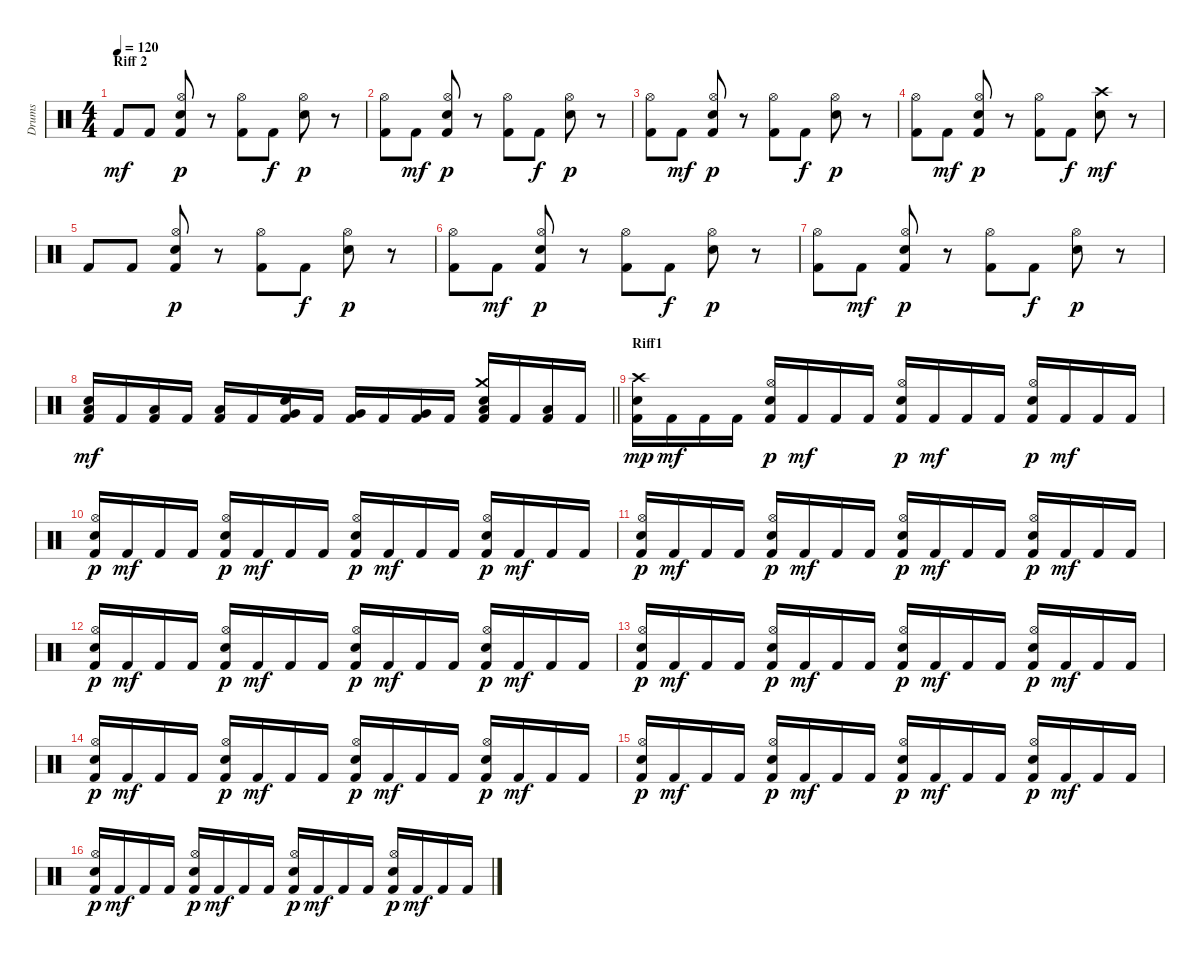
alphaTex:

\track ("Drums" "Drums") {instrument percussion}
\staff {score}
\articulation defaults
\ts (4 4)
\section ("" "Riff 2")
\tempo 120
\clef neutral
\ks c "Kick (hit) 2".8{dy mf} "Kick (hit) 2".8
("Kick (hit) 2" "Hi-Hat (open)" "Snare (hit) 2").8{dy p} r.8 ("Kick (hit) 2" "Hi-Hat (open)").8 "Kick (hit) 2".8{dy f} ("Hi-Hat (open)" "Snare (hit) 2").8{dy p} r.8 |
("Kick (hit) 2" "Hi-Hat (open)").8 "Kick (hit) 2".8{dy mf} ("Kick (hit) 2" "Hi-Hat (open)" "Snare (hit) 2").8{dy p} r.8 ("Kick (hit) 2" "Hi-Hat (open)").8 "Kick (hit) 2".8{dy f} ("Hi-Hat (open)" "Snare (hit) 2").8{dy p} r.8 |
("Kick (hit) 2" "Hi-Hat (open)").8 "Kick (hit) 2".8{dy mf} ("Kick (hit) 2" "Hi-Hat (open)" "Snare (hit) 2").8{dy p} r.8 ("Kick (hit) 2" "Hi-Hat (open)").8 "Kick (hit) 2".8{dy f} ("Hi-Hat (open)" "Snare (hit) 2").8{dy p} r.8 |
("Kick (hit) 2" "Hi-Hat (open)").8 "Kick (hit) 2".8{dy mf} ("Kick (hit) 2" "Hi-Hat (open)" "Snare (hit) 2").8{dy p} r.8 ("Kick (hit) 2" "Hi-Hat (open)").8 "Kick (hit) 2".8{dy f} ("Crash high (hit)" "Snare (hit) 2").8{dy mf} r.8 |
"Kick (hit) 2".8 "Kick (hit) 2".8 ("Kick (hit) 2" "Hi-Hat (open)" "Snare (hit) 2").8{dy p} r.8 ("Kick (hit) 2" "Hi-Hat (open)").8 "Kick (hit) 2".8{dy f} ("Hi-Hat (open)" "Snare (hit) 2").8{dy p} r.8 |
("Kick (hit) 2" "Hi-Hat (open)").8 "Kick (hit) 2".8{dy mf} ("Kick (hit) 2" "Hi-Hat (open)" "Snare (hit) 2").8{dy p} r.8 ("Kick (hit) 2" "Hi-Hat (open)").8 "Kick (hit) 2".8{dy f} ("Hi-Hat (open)" "Snare (hit) 2").8{dy p} r.8 |
("Kick (hit) 2" "Hi-Hat (open)").8 "Kick (hit) 2".8{dy mf} ("Kick (hit) 2" "Hi-Hat (open)" "Snare (hit) 2").8{dy p} r.8 ("Kick (hit) 2" "Hi-Hat (open)").8 "Kick (hit) 2".8{dy f} ("Hi-Hat (open)" "Snare (hit) 2").8{dy p} r.8 |
\barLineRight lightlight
("Kick (hit) 2" "Snare (hit) 2" "Low Tom (hit)").16{dy mf} "Kick (hit) 2".16 ("Kick (hit) 2" "Low Tom (hit)").16 "Kick (hit) 2".16 ("Kick (hit) 2" "Low Tom (hit)").16 "Kick (hit) 2".16 ("Kick (hit) 2" "Snare (hit) 2" "Very Low Tom (hit)").16 "Kick (hit) 2".16 ("Kick (hit) 2" "Very Low Tom (hit)").16 "Kick (hit) 2".16 ("Kick (hit) 2" "Very Low Tom (hit)").16 "Kick (hit) 2".16 ("Kick (hit) 2" "Crash medium (hit)" "Snare (hit) 2" "Low Floor Tom (hit)").16 "Kick (hit) 2".16 ("Kick (hit) 2" "Low Floor Tom (hit)").16 "Kick (hit) 2".16 |
\section ("" "Riff1")
("Kick (hit) 2" "Crash high (hit)" "Snare (hit) 2").16{dy mp} "Kick (hit) 2".16{dy mf} "Kick (hit) 2".16 "Kick (hit) 2".16 ("Kick (hit) 2" "Hi-Hat (open)" "Snare (hit) 2").16{dy p} "Kick (hit) 2".16{dy mf} "Kick (hit) 2".16 "Kick (hit) 2".16 ("Kick (hit) 2" "Hi-Hat (open)" "Snare (hit) 2").16{dy p} "Kick (hit) 2".16{dy mf} "Kick (hit) 2".16 "Kick (hit) 2".16 ("Kick (hit) 2" "Hi-Hat (open)" "Snare (hit) 2").16{dy p} "Kick (hit) 2".16{dy mf} "Kick (hit) 2".16 "Kick (hit) 2".16 |
("Kick (hit) 2" "Hi-Hat (open)" "Snare (hit) 2").16{dy p} "Kick (hit) 2".16{dy mf} "Kick (hit) 2".16 "Kick (hit) 2".16 ("Kick (hit) 2" "Hi-Hat (open)" "Snare (hit) 2").16{dy p} "Kick (hit) 2".16{dy mf} "Kick (hit) 2".16 "Kick (hit) 2".16 ("Kick (hit) 2" "Hi-Hat (open)" "Snare (hit) 2").16{dy p} "Kick (hit) 2".16{dy mf} "Kick (hit) 2".16 "Kick (hit) 2".16 ("Kick (hit) 2" "Hi-Hat (open)" "Snare (hit) 2").16{dy p} "Kick (hit) 2".16{dy mf} "Kick (hit) 2".16 "Kick (hit) 2".16 |
("Kick (hit) 2" "Hi-Hat (open)" "Snare (hit) 2").16{dy p} "Kick (hit) 2".16{dy mf} "Kick (hit) 2".16 "Kick (hit) 2".16 ("Kick (hit) 2" "Hi-Hat (open)" "Snare (hit) 2").16{dy p} "Kick (hit) 2".16{dy mf} "Kick (hit) 2".16 "Kick (hit) 2".16 ("Kick (hit) 2" "Hi-Hat (open)" "Snare (hit) 2").16{dy p} "Kick (hit) 2".16{dy mf} "Kick (hit) 2".16 "Kick (hit) 2".16 ("Kick (hit) 2" "Hi-Hat (open)" "Snare (hit) 2").16{dy p} "Kick (hit) 2".16{dy mf} "Kick (hit) 2".16 "Kick (hit) 2".16 |
("Kick (hit) 2" "Hi-Hat (open)" "Snare (hit) 2").16{dy p} "Kick (hit) 2".16{dy mf} "Kick (hit) 2".16 "Kick (hit) 2".16 ("Kick (hit) 2" "Hi-Hat (open)" "Snare (hit) 2").16{dy p} "Kick (hit) 2".16{dy mf} "Kick (hit) 2".16 "Kick (hit) 2".16 ("Kick (hit) 2" "Hi-Hat (open)" "Snare (hit) 2").16{dy p} "Kick (hit) 2".16{dy mf} "Kick (hit) 2".16 "Kick (hit) 2".16 ("Kick (hit) 2" "Hi-Hat (open)" "Snare (hit) 2").16{dy p} "Kick (hit) 2".16{dy mf} "Kick (hit) 2".16 "Kick (hit) 2".16 |
("Kick (hit) 2" "Hi-Hat (open)" "Snare (hit) 2").16{dy p} "Kick (hit) 2".16{dy mf} "Kick (hit) 2".16 "Kick (hit) 2".16 ("Kick (hit) 2" "Hi-Hat (open)" "Snare (hit) 2").16{dy p} "Kick (hit) 2".16{dy mf} "Kick (hit) 2".16 "Kick (hit) 2".16 ("Kick (hit) 2" "Hi-Hat (open)" "Snare (hit) 2").16{dy p} "Kick (hit) 2".16{dy mf} "Kick (hit) 2".16 "Kick (hit) 2".16 ("Kick (hit) 2" "Hi-Hat (open)" "Snare (hit) 2").16{dy p} "Kick (hit) 2".16{dy mf} "Kick (hit) 2".16 "Kick (hit) 2".16 |
("Kick (hit) 2" "Hi-Hat (open)" "Snare (hit) 2").16{dy p} "Kick (hit) 2".16{dy mf} "Kick (hit) 2".16 "Kick (hit) 2".16 ("Kick (hit) 2" "Hi-Hat (open)" "Snare (hit) 2").16{dy p} "Kick (hit) 2".16{dy mf} "Kick (hit) 2".16 "Kick (hit) 2".16 ("Kick (hit) 2" "Hi-Hat (open)" "Snare (hit) 2").16{dy p} "Kick (hit) 2".16{dy mf} "Kick (hit) 2".16 "Kick (hit) 2".16 ("Kick (hit) 2" "Hi-Hat (open)" "Snare (hit) 2").16{dy p} "Kick (hit) 2".16{dy mf} "Kick (hit) 2".16 "Kick (hit) 2".16 |
("Kick (hit) 2" "Hi-Hat (open)" "Snare (hit) 2").16{dy p} "Kick (hit) 2".16{dy mf} "Kick (hit) 2".16 "Kick (hit) 2".16 ("Kick (hit) 2" "Hi-Hat (open)" "Snare (hit) 2").16{dy p} "Kick (hit) 2".16{dy mf} "Kick (hit) 2".16 "Kick (hit) 2".16 ("Kick (hit) 2" "Hi-Hat (open)" "Snare (hit) 2").16{dy p} "Kick (hit) 2".16{dy mf} "Kick (hit) 2".16 "Kick (hit) 2".16 ("Kick (hit) 2" "Hi-Hat (open)" "Snare (hit) 2").16{dy p} "Kick (hit) 2".16{dy mf} "Kick (hit) 2".16 "Kick (hit) 2".16 |
("Kick (hit) 2" "Hi-Hat (open)" "Snare (hit) 2").16{dy p} "Kick (hit) 2".16{dy mf} "Kick (hit) 2".16 "Kick (hit) 2".16 ("Kick (hit) 2" "Hi-Hat (open)" "Snare (hit) 2").16{dy p} "Kick (hit) 2".16{dy mf} "Kick (hit) 2".16 "Kick (hit) 2".16 ("Kick (hit) 2" "Hi-Hat (open)" "Snare (hit) 2").16{dy p} "Kick (hit) 2".16{dy mf} "Kick (hit) 2".16 "Kick (hit) 2".16 ("Kick (hit) 2" "Hi-Hat (open)" "Snare (hit) 2").16{dy p} "Kick (hit) 2".16{dy mf} "Kick (hit) 2".16 "Kick (hit) 2".16
